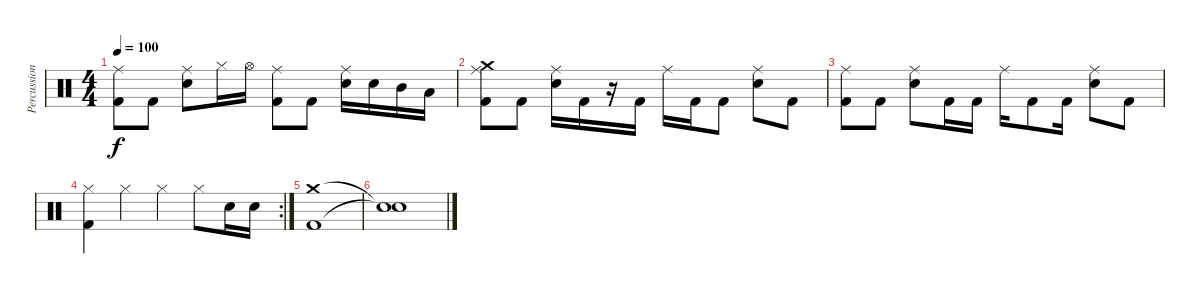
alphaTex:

\track ("Percussion" "Percussion") {instrument percussion}
\staff {score}
\articulation defaults
\ts (4 4)
\tempo 100
\clef neutral
\ks c
("Ride (middle)" "Kick (hit) 2").8{dy f} "Kick (hit) 2".8 ("Ride (middle)" "Snare (hit) 2").8 "Hi-Hat (closed)".16 "Hi-Hat (open)".16 ("Ride (middle)" "Kick (hit) 2").8 "Kick (hit) 2".8 ("Ride (middle)" "Snare (hit) 2").16 "Snare (hit) 2".16 "Mid Tom (hit)".16 "Low Tom (hit)".16 |
("Crash medium (hit)" "Ride (middle)" "Kick (hit) 2").8 "Kick (hit) 2".8 ("Ride (middle)" "Snare (hit) 2").16 "Kick (hit) 2".16 r.16 "Kick (hit) 2".16 "Ride (middle)".16 "Kick (hit) 2".16 "Kick (hit) 2".8 ("Ride (middle)" "Snare (hit) 2").8 "Kick (hit) 2".8 |
("Ride (middle)" "Kick (hit) 2").8 "Kick (hit) 2".8 ("Ride (middle)" "Snare (hit) 2").8 "Kick (hit) 2".16 "Kick (hit) 2".16 "Ride (middle)".16 "Kick (hit) 2".8 "Kick (hit) 2".16 ("Ride (middle)" "Snare (hit) 2").8 "Kick (hit) 2".8 |
\rc 2
("Hi-Hat (closed)" "Kick (hit) 2").4 "Hi-Hat (closed)".4 "Hi-Hat (closed)".4 "Hi-Hat (closed)".8 "Snare (hit) 2".16 "Snare (hit) 2".16 |
("Crash medium (hit)" "Kick (hit) 2").1 |
("Snare (hit)"{t} "Snare (hit)"{t}).1
